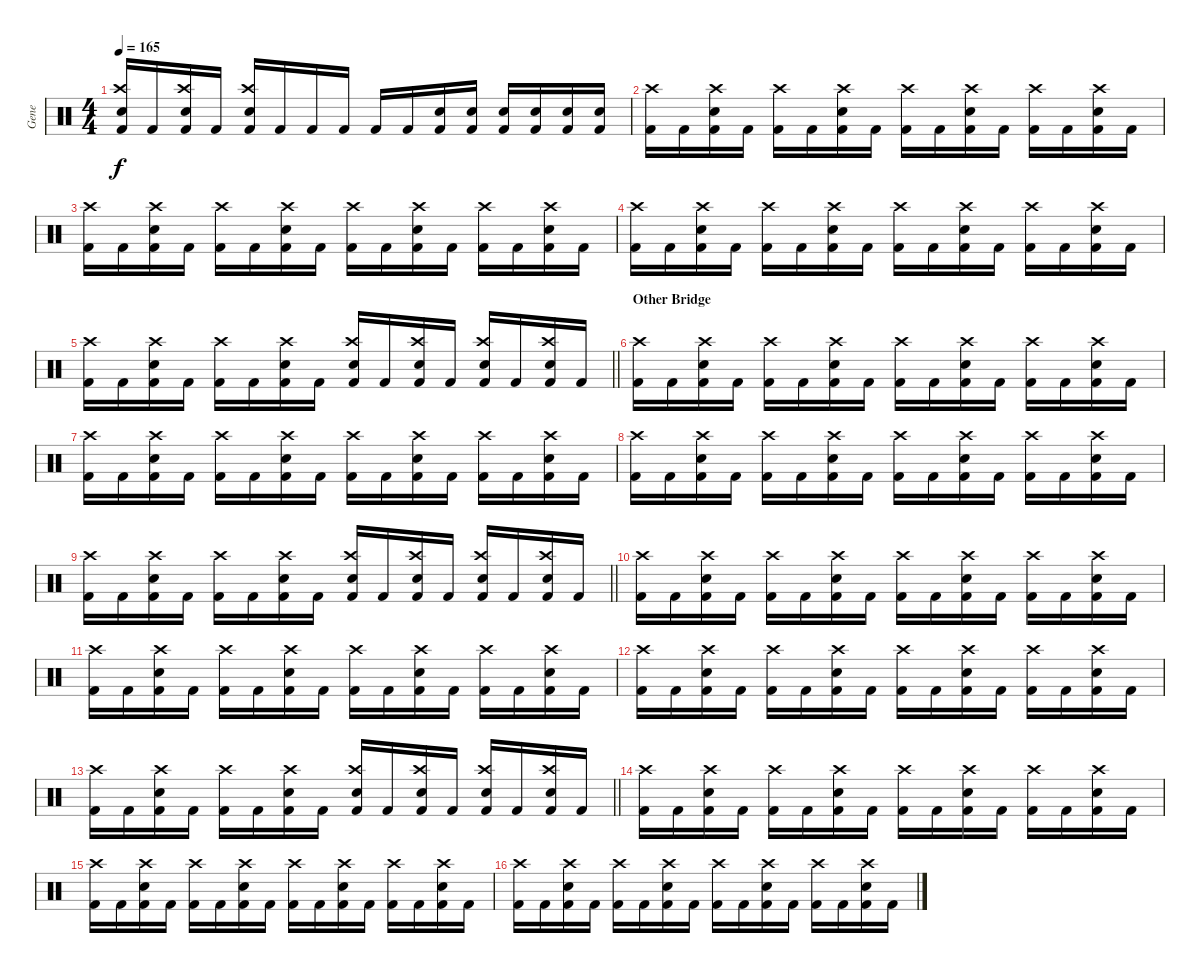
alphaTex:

\track ("Gene" "Gene") {instrument percussion}
\staff {score}
\articulation defaults
\ts (4 4)
\tempo 165
\clef neutral
\ks c
("Electric Snare (hit)" "Crash high (hit)" "Kick (hit) 2").16{dy f} "Kick (hit) 2".16 ("Electric Snare (hit)" "Crash high (hit)" "Kick (hit) 2").16 "Kick (hit) 2".16 ("Electric Snare (hit)" "Crash high (hit)" "Kick (hit) 2").16 "Kick (hit) 2".16 "Kick (hit) 2".16 "Kick (hit) 2".16 "Kick (hit) 2".16 "Kick (hit) 2".16 ("Electric Snare (hit)" "Kick (hit) 2").16 ("Electric Snare (hit)" "Kick (hit) 2").16 ("Electric Snare (hit)" "Kick (hit) 2").16 ("Electric Snare (hit)" "Kick (hit) 2").16 ("Electric Snare (hit)" "Kick (hit) 2").16 ("Electric Snare (hit)" "Kick (hit) 2").16 |
("Crash high (hit)" "Kick (hit) 2").16 "Kick (hit) 2".16 ("Crash high (hit)" "Electric Snare (hit)" "Kick (hit) 2").16 "Kick (hit) 2".16 ("Crash high (hit)" "Kick (hit) 2").16 "Kick (hit) 2".16 ("Crash high (hit)" "Electric Snare (hit)" "Kick (hit) 2").16 "Kick (hit) 2".16 ("Crash high (hit)" "Kick (hit) 2").16 "Kick (hit) 2".16 ("Crash high (hit)" "Electric Snare (hit)" "Kick (hit) 2").16 "Kick (hit) 2".16 ("Crash high (hit)" "Kick (hit) 2").16 "Kick (hit) 2".16 ("Crash high (hit)" "Electric Snare (hit)" "Kick (hit) 2").16 "Kick (hit) 2".16 |
("Crash high (hit)" "Kick (hit) 2").16 "Kick (hit) 2".16 ("Crash high (hit)" "Electric Snare (hit)" "Kick (hit) 2").16 "Kick (hit) 2".16 ("Crash high (hit)" "Kick (hit) 2").16 "Kick (hit) 2".16 ("Crash high (hit)" "Electric Snare (hit)" "Kick (hit) 2").16 "Kick (hit) 2".16 ("Crash high (hit)" "Kick (hit) 2").16 "Kick (hit) 2".16 ("Crash high (hit)" "Electric Snare (hit)" "Kick (hit) 2").16 "Kick (hit) 2".16 ("Crash high (hit)" "Kick (hit) 2").16 "Kick (hit) 2".16 ("Crash high (hit)" "Electric Snare (hit)" "Kick (hit) 2").16 "Kick (hit) 2".16 |
("Crash high (hit)" "Kick (hit) 2").16 "Kick (hit) 2".16 ("Crash high (hit)" "Electric Snare (hit)" "Kick (hit) 2").16 "Kick (hit) 2".16 ("Crash high (hit)" "Kick (hit) 2").16 "Kick (hit) 2".16 ("Crash high (hit)" "Electric Snare (hit)" "Kick (hit) 2").16 "Kick (hit) 2".16 ("Crash high (hit)" "Kick (hit) 2").16 "Kick (hit) 2".16 ("Crash high (hit)" "Electric Snare (hit)" "Kick (hit) 2").16 "Kick (hit) 2".16 ("Crash high (hit)" "Kick (hit) 2").16 "Kick (hit) 2".16 ("Crash high (hit)" "Electric Snare (hit)" "Kick (hit) 2").16 "Kick (hit) 2".16 |
\barLineRight lightlight
("Crash high (hit)" "Kick (hit) 2").16 "Kick (hit) 2".16 ("Crash high (hit)" "Electric Snare (hit)" "Kick (hit) 2").16 "Kick (hit) 2".16 ("Crash high (hit)" "Kick (hit) 2").16 "Kick (hit) 2".16 ("Crash high (hit)" "Electric Snare (hit)" "Kick (hit) 2").16 "Kick (hit) 2".16 ("Crash high (hit)" "Electric Snare (hit)" "Kick (hit) 2").16 "Kick (hit) 2".16 ("Crash high (hit)" "Electric Snare (hit)" "Kick (hit) 2").16 "Kick (hit) 2".16 ("Crash high (hit)" "Electric Snare (hit)" "Kick (hit) 2").16 "Kick (hit) 2".16 ("Crash high (hit)" "Electric Snare (hit)" "Kick (hit) 2").16 "Kick (hit) 2".16 |
\section ("" "Other Bridge")
("Crash high (hit)" "Kick (hit) 2").16 "Kick (hit) 2".16 ("Crash high (hit)" "Electric Snare (hit)" "Kick (hit) 2").16 "Kick (hit) 2".16 ("Crash high (hit)" "Kick (hit) 2").16 "Kick (hit) 2".16 ("Crash high (hit)" "Electric Snare (hit)" "Kick (hit) 2").16 "Kick (hit) 2".16 ("Crash high (hit)" "Kick (hit) 2").16 "Kick (hit) 2".16 ("Crash high (hit)" "Electric Snare (hit)" "Kick (hit) 2").16 "Kick (hit) 2".16 ("Crash high (hit)" "Kick (hit) 2").16 "Kick (hit) 2".16 ("Crash high (hit)" "Electric Snare (hit)" "Kick (hit) 2").16 "Kick (hit) 2".16 |
("Crash high (hit)" "Kick (hit) 2").16 "Kick (hit) 2".16 ("Crash high (hit)" "Electric Snare (hit)" "Kick (hit) 2").16 "Kick (hit) 2".16 ("Crash high (hit)" "Kick (hit) 2").16 "Kick (hit) 2".16 ("Crash high (hit)" "Electric Snare (hit)" "Kick (hit) 2").16 "Kick (hit) 2".16 ("Crash high (hit)" "Kick (hit) 2").16 "Kick (hit) 2".16 ("Crash high (hit)" "Electric Snare (hit)" "Kick (hit) 2").16 "Kick (hit) 2".16 ("Crash high (hit)" "Kick (hit) 2").16 "Kick (hit) 2".16 ("Crash high (hit)" "Electric Snare (hit)" "Kick (hit) 2").16 "Kick (hit) 2".16 |
("Crash high (hit)" "Kick (hit) 2").16 "Kick (hit) 2".16 ("Crash high (hit)" "Electric Snare (hit)" "Kick (hit) 2").16 "Kick (hit) 2".16 ("Crash high (hit)" "Kick (hit) 2").16 "Kick (hit) 2".16 ("Crash high (hit)" "Electric Snare (hit)" "Kick (hit) 2").16 "Kick (hit) 2".16 ("Crash high (hit)" "Kick (hit) 2").16 "Kick (hit) 2".16 ("Crash high (hit)" "Electric Snare (hit)" "Kick (hit) 2").16 "Kick (hit) 2".16 ("Crash high (hit)" "Kick (hit) 2").16 "Kick (hit) 2".16 ("Crash high (hit)" "Electric Snare (hit)" "Kick (hit) 2").16 "Kick (hit) 2".16 |
\barLineRight lightlight
("Crash high (hit)" "Kick (hit) 2").16 "Kick (hit) 2".16 ("Crash high (hit)" "Electric Snare (hit)" "Kick (hit) 2").16 "Kick (hit) 2".16 ("Crash high (hit)" "Kick (hit) 2").16 "Kick (hit) 2".16 ("Crash high (hit)" "Electric Snare (hit)" "Kick (hit) 2").16 "Kick (hit) 2".16 ("Crash high (hit)" "Electric Snare (hit)" "Kick (hit) 2").16 "Kick (hit) 2".16 ("Crash high (hit)" "Electric Snare (hit)" "Kick (hit) 2").16 "Kick (hit) 2".16 ("Crash high (hit)" "Electric Snare (hit)" "Kick (hit) 2").16 "Kick (hit) 2".16 ("Crash high (hit)" "Electric Snare (hit)" "Kick (hit) 2").16 "Kick (hit) 2".16 |
("Crash high (hit)" "Kick (hit) 2").16 "Kick (hit) 2".16 ("Crash high (hit)" "Electric Snare (hit)" "Kick (hit) 2").16 "Kick (hit) 2".16 ("Crash high (hit)" "Kick (hit) 2").16 "Kick (hit) 2".16 ("Crash high (hit)" "Electric Snare (hit)" "Kick (hit) 2").16 "Kick (hit) 2".16 ("Crash high (hit)" "Kick (hit) 2").16 "Kick (hit) 2".16 ("Crash high (hit)" "Electric Snare (hit)" "Kick (hit) 2").16 "Kick (hit) 2".16 ("Crash high (hit)" "Kick (hit) 2").16 "Kick (hit) 2".16 ("Crash high (hit)" "Electric Snare (hit)" "Kick (hit) 2").16 "Kick (hit) 2".16 |
("Crash high (hit)" "Kick (hit) 2").16 "Kick (hit) 2".16 ("Crash high (hit)" "Electric Snare (hit)" "Kick (hit) 2").16 "Kick (hit) 2".16 ("Crash high (hit)" "Kick (hit) 2").16 "Kick (hit) 2".16 ("Crash high (hit)" "Electric Snare (hit)" "Kick (hit) 2").16 "Kick (hit) 2".16 ("Crash high (hit)" "Kick (hit) 2").16 "Kick (hit) 2".16 ("Crash high (hit)" "Electric Snare (hit)" "Kick (hit) 2").16 "Kick (hit) 2".16 ("Crash high (hit)" "Kick (hit) 2").16 "Kick (hit) 2".16 ("Crash high (hit)" "Electric Snare (hit)" "Kick (hit) 2").16 "Kick (hit) 2".16 |
("Crash high (hit)" "Kick (hit) 2").16 "Kick (hit) 2".16 ("Crash high (hit)" "Electric Snare (hit)" "Kick (hit) 2").16 "Kick (hit) 2".16 ("Crash high (hit)" "Kick (hit) 2").16 "Kick (hit) 2".16 ("Crash high (hit)" "Electric Snare (hit)" "Kick (hit) 2").16 "Kick (hit) 2".16 ("Crash high (hit)" "Kick (hit) 2").16 "Kick (hit) 2".16 ("Crash high (hit)" "Electric Snare (hit)" "Kick (hit) 2").16 "Kick (hit) 2".16 ("Crash high (hit)" "Kick (hit) 2").16 "Kick (hit) 2".16 ("Crash high (hit)" "Electric Snare (hit)" "Kick (hit) 2").16 "Kick (hit) 2".16 |
\barLineRight lightlight
("Crash high (hit)" "Kick (hit) 2").16 "Kick (hit) 2".16 ("Crash high (hit)" "Electric Snare (hit)" "Kick (hit) 2").16 "Kick (hit) 2".16 ("Crash high (hit)" "Kick (hit) 2").16 "Kick (hit) 2".16 ("Crash high (hit)" "Electric Snare (hit)" "Kick (hit) 2").16 "Kick (hit) 2".16 ("Crash high (hit)" "Electric Snare (hit)" "Kick (hit) 2").16 "Kick (hit) 2".16 ("Crash high (hit)" "Electric Snare (hit)" "Kick (hit) 2").16 "Kick (hit) 2".16 ("Crash high (hit)" "Electric Snare (hit)" "Kick (hit) 2").16 "Kick (hit) 2".16 ("Crash high (hit)" "Electric Snare (hit)" "Kick (hit) 2").16 "Kick (hit) 2".16 |
("Crash high (hit)" "Kick (hit) 2").16 "Kick (hit) 2".16 ("Crash high (hit)" "Electric Snare (hit)" "Kick (hit) 2").16 "Kick (hit) 2".16 ("Crash high (hit)" "Kick (hit) 2").16 "Kick (hit) 2".16 ("Crash high (hit)" "Electric Snare (hit)" "Kick (hit) 2").16 "Kick (hit) 2".16 ("Crash high (hit)" "Kick (hit) 2").16 "Kick (hit) 2".16 ("Crash high (hit)" "Electric Snare (hit)" "Kick (hit) 2").16 "Kick (hit) 2".16 ("Crash high (hit)" "Kick (hit) 2").16 "Kick (hit) 2".16 ("Crash high (hit)" "Electric Snare (hit)" "Kick (hit) 2").16 "Kick (hit) 2".16 |
("Crash high (hit)" "Kick (hit) 2").16 "Kick (hit) 2".16 ("Crash high (hit)" "Electric Snare (hit)" "Kick (hit) 2").16 "Kick (hit) 2".16 ("Crash high (hit)" "Kick (hit) 2").16 "Kick (hit) 2".16 ("Crash high (hit)" "Electric Snare (hit)" "Kick (hit) 2").16 "Kick (hit) 2".16 ("Crash high (hit)" "Kick (hit) 2").16 "Kick (hit) 2".16 ("Crash high (hit)" "Electric Snare (hit)" "Kick (hit) 2").16 "Kick (hit) 2".16 ("Crash high (hit)" "Kick (hit) 2").16 "Kick (hit) 2".16 ("Crash high (hit)" "Electric Snare (hit)" "Kick (hit) 2").16 "Kick (hit) 2".16 |
("Crash high (hit)" "Kick (hit) 2").16 "Kick (hit) 2".16 ("Crash high (hit)" "Electric Snare (hit)" "Kick (hit) 2").16 "Kick (hit) 2".16 ("Crash high (hit)" "Kick (hit) 2").16 "Kick (hit) 2".16 ("Crash high (hit)" "Electric Snare (hit)" "Kick (hit) 2").16 "Kick (hit) 2".16 ("Crash high (hit)" "Kick (hit) 2").16 "Kick (hit) 2".16 ("Crash high (hit)" "Electric Snare (hit)" "Kick (hit) 2").16 "Kick (hit) 2".16 ("Crash high (hit)" "Kick (hit) 2").16 "Kick (hit) 2".16 ("Crash high (hit)" "Electric Snare (hit)" "Kick (hit) 2").16 "Kick (hit) 2".16
